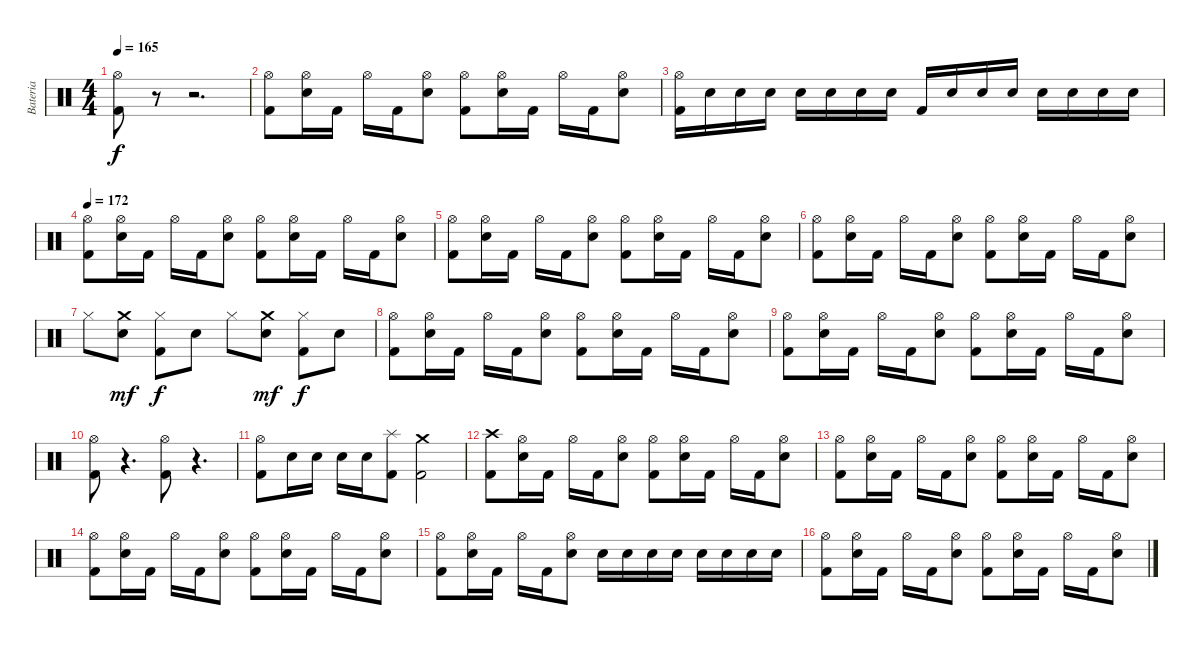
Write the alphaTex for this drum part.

\track ("Bateria" "Bateria") {instrument percussion}
\staff {score}
\articulation defaults
\ts (4 4)
\tempo 165
\clef neutral
\ks c
("Hi-Hat (open)" "Kick (hit) 2").8{dy f} r.8 r.2{d} |
("Hi-Hat (open)" "Kick (hit) 2").8 ("Hi-Hat (open)" "Electric Snare (hit)").16 "Kick (hit) 2".16 "Hi-Hat (open)".16 "Kick (hit) 2".16 ("Hi-Hat (open)" "Electric Snare (hit)").8 ("Hi-Hat (open)" "Kick (hit) 2").8 ("Hi-Hat (open)" "Electric Snare (hit)").16 "Kick (hit) 2".16 "Hi-Hat (open)".16 "Kick (hit) 2".16 ("Hi-Hat (open)" "Electric Snare (hit)").8 |
("Hi-Hat (open)" "Kick (hit) 2").16 "Electric Snare (hit)".16 "Electric Snare (hit)".16 "Electric Snare (hit)".16 "Electric Snare (hit)".16 "Electric Snare (hit)".16 "Electric Snare (hit)".16 "Electric Snare (hit)".16 "Kick (hit) 2".16 "Electric Snare (hit)".16 "Electric Snare (hit)".16 "Electric Snare (hit)".16 "Electric Snare (hit)".16 "Electric Snare (hit)".16 "Electric Snare (hit)".16 "Electric Snare (hit)".16 |
\tempo 172
("Hi-Hat (open)" "Kick (hit) 2").8 ("Hi-Hat (open)" "Electric Snare (hit)").16 "Kick (hit) 2".16 "Hi-Hat (open)".16 "Kick (hit) 2".16 ("Hi-Hat (open)" "Electric Snare (hit)").8 ("Hi-Hat (open)" "Kick (hit) 2").8 ("Hi-Hat (open)" "Electric Snare (hit)").16 "Kick (hit) 2".16 "Hi-Hat (open)".16 "Kick (hit) 2".16 ("Hi-Hat (open)" "Electric Snare (hit)").8 |
("Hi-Hat (open)" "Kick (hit) 2").8 ("Hi-Hat (open)" "Electric Snare (hit)").16 "Kick (hit) 2".16 "Hi-Hat (open)".16 "Kick (hit) 2".16 ("Hi-Hat (open)" "Electric Snare (hit)").8 ("Hi-Hat (open)" "Kick (hit) 2").8 ("Hi-Hat (open)" "Electric Snare (hit)").16 "Kick (hit) 2".16 "Hi-Hat (open)".16 "Kick (hit) 2".16 ("Hi-Hat (open)" "Electric Snare (hit)").8 |
("Hi-Hat (open)" "Kick (hit) 2").8 ("Hi-Hat (open)" "Electric Snare (hit)").16 "Kick (hit) 2".16 "Hi-Hat (open)".16 "Kick (hit) 2".16 ("Hi-Hat (open)" "Electric Snare (hit)").8 ("Hi-Hat (open)" "Kick (hit) 2").8 ("Hi-Hat (open)" "Electric Snare (hit)").16 "Kick (hit) 2".16 "Hi-Hat (open)".16 "Kick (hit) 2".16 ("Hi-Hat (open)" "Electric Snare (hit)").8 |
"Hi-Hat (closed)".8 ("Crash medium (hit)" "Electric Snare (hit)").8{dy mf} ("Hi-Hat (closed)" "Kick (hit) 2").8{dy f} "Electric Snare (hit)".8 "Hi-Hat (closed)".8 ("Crash medium (hit)" "Electric Snare (hit)").8{dy mf} ("Hi-Hat (closed)" "Kick (hit) 2").8{dy f} "Electric Snare (hit)".8 |
("Hi-Hat (open)" "Kick (hit) 2").8 ("Hi-Hat (open)" "Electric Snare (hit)").16 "Kick (hit) 2".16 "Hi-Hat (open)".16 "Kick (hit) 2".16 ("Hi-Hat (open)" "Electric Snare (hit)").8 ("Hi-Hat (open)" "Kick (hit) 2").8 ("Hi-Hat (open)" "Electric Snare (hit)").16 "Kick (hit) 2".16 "Hi-Hat (open)".16 "Kick (hit) 2".16 ("Hi-Hat (open)" "Electric Snare (hit)").8 |
("Hi-Hat (open)" "Kick (hit) 2").8 ("Hi-Hat (open)" "Electric Snare (hit)").16 "Kick (hit) 2".16 "Hi-Hat (open)".16 "Kick (hit) 2".16 ("Hi-Hat (open)" "Electric Snare (hit)").8 ("Hi-Hat (open)" "Kick (hit) 2").8 ("Hi-Hat (open)" "Electric Snare (hit)").16 "Kick (hit) 2".16 "Hi-Hat (open)".16 "Kick (hit) 2".16 ("Hi-Hat (open)" "Electric Snare (hit)").8 |
("Hi-Hat (open)" "Kick (hit) 2").8 r.4{d} ("Hi-Hat (open)" "Kick (hit) 2").8 r.4{d} |
("Hi-Hat (open)" "Kick (hit) 2").8 "Electric Snare (hit)".16 "Electric Snare (hit)".16 "Electric Snare (hit)".16 "Electric Snare (hit)".16 ("Splash (hit)" "Kick (hit) 2").8 ("Crash medium (hit)" "Kick (hit) 2").2 |
("Crash high (hit)" "Kick (hit) 2").8 ("Hi-Hat (open)" "Electric Snare (hit)").16 "Kick (hit) 2".16 "Hi-Hat (open)".16 "Kick (hit) 2".16 ("Hi-Hat (open)" "Electric Snare (hit)").8 ("Hi-Hat (open)" "Kick (hit) 2").8 ("Hi-Hat (open)" "Electric Snare (hit)").16 "Kick (hit) 2".16 "Hi-Hat (open)".16 "Kick (hit) 2".16 ("Hi-Hat (open)" "Electric Snare (hit)").8 |
("Hi-Hat (open)" "Kick (hit) 2").8 ("Hi-Hat (open)" "Electric Snare (hit)").16 "Kick (hit) 2".16 "Hi-Hat (open)".16 "Kick (hit) 2".16 ("Hi-Hat (open)" "Electric Snare (hit)").8 ("Hi-Hat (open)" "Kick (hit) 2").8 ("Hi-Hat (open)" "Electric Snare (hit)").16 "Kick (hit) 2".16 "Hi-Hat (open)".16 "Kick (hit) 2".16 ("Hi-Hat (open)" "Electric Snare (hit)").8 |
("Hi-Hat (open)" "Kick (hit) 2").8 ("Hi-Hat (open)" "Electric Snare (hit)").16 "Kick (hit) 2".16 "Hi-Hat (open)".16 "Kick (hit) 2".16 ("Hi-Hat (open)" "Electric Snare (hit)").8 ("Hi-Hat (open)" "Kick (hit) 2").8 ("Hi-Hat (open)" "Electric Snare (hit)").16 "Kick (hit) 2".16 "Hi-Hat (open)".16 "Kick (hit) 2".16 ("Hi-Hat (open)" "Electric Snare (hit)").8 |
("Hi-Hat (open)" "Kick (hit) 2").8 ("Hi-Hat (open)" "Electric Snare (hit)").16 "Kick (hit) 2".16 "Hi-Hat (open)".16 "Kick (hit) 2".16 ("Hi-Hat (open)" "Electric Snare (hit)").8 "Electric Snare (hit)".16 "Electric Snare (hit)".16 "Electric Snare (hit)".16 "Electric Snare (hit)".16 "Electric Snare (hit)".16 "Electric Snare (hit)".16 "Electric Snare (hit)".16 "Electric Snare (hit)".16 |
("Hi-Hat (open)" "Kick (hit) 2").8 ("Hi-Hat (open)" "Electric Snare (hit)").16 "Kick (hit) 2".16 "Hi-Hat (open)".16 "Kick (hit) 2".16 ("Hi-Hat (open)" "Electric Snare (hit)").8 ("Hi-Hat (open)" "Kick (hit) 2").8 ("Hi-Hat (open)" "Electric Snare (hit)").16 "Kick (hit) 2".16 "Hi-Hat (open)".16 "Kick (hit) 2".16 ("Hi-Hat (open)" "Electric Snare (hit)").8
